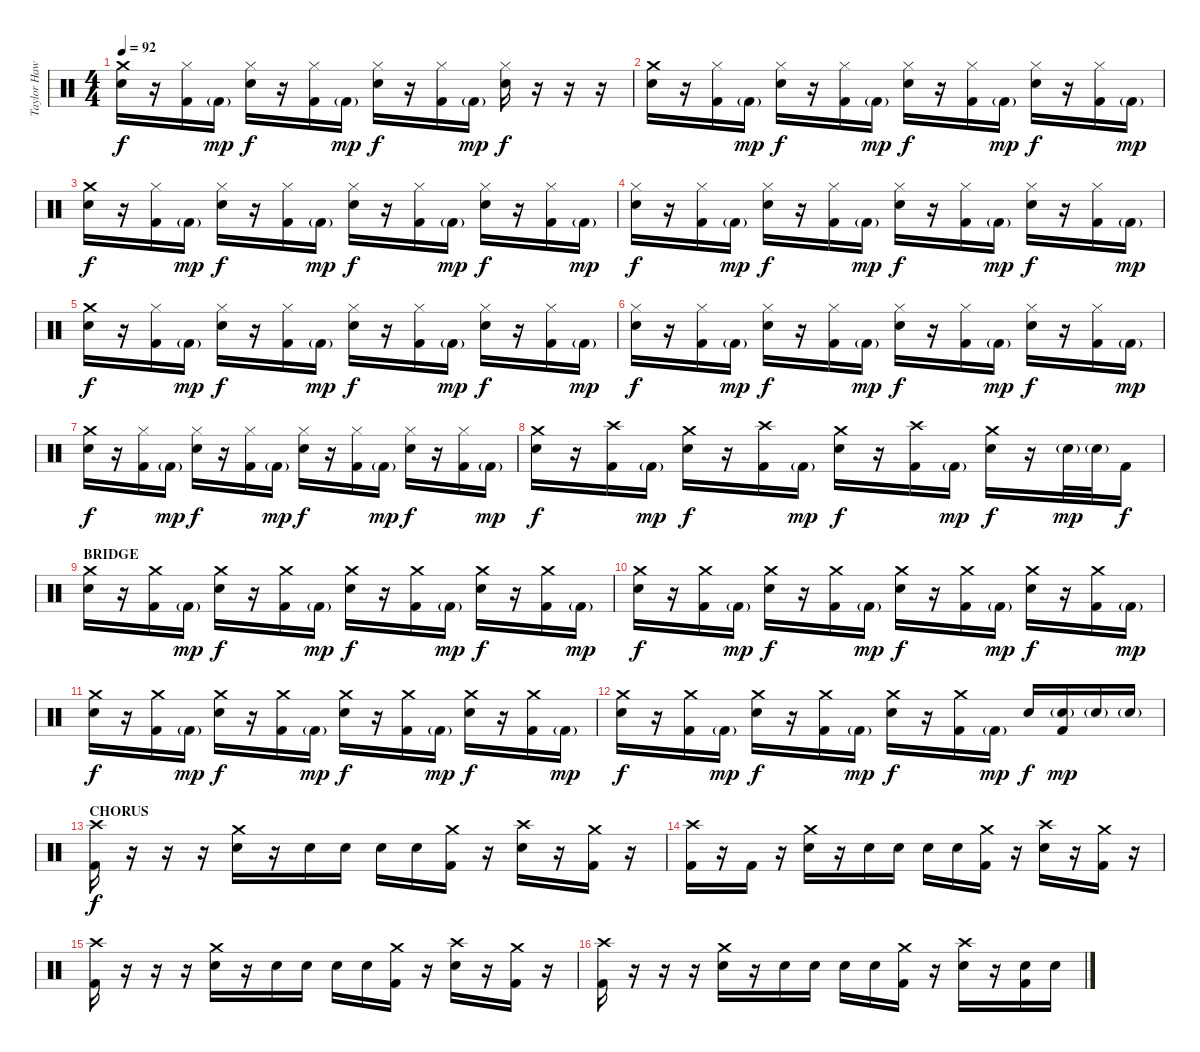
\track ("Taylor Hawkins (Drums)" "Taylor Haw") {instrument percussion}
\staff {score}
\articulation defaults
\ts (4 4)
\tempo 92
\clef neutral
\ks c
("Crash medium (hit)" "Electric Snare (hit)").16{dy f} r.16 ("Hi-Hat (closed)" "Kick (hit) 2").16 "Kick (hit) 2"{g}.16{dy mp} ("Hi-Hat (closed)" "Electric Snare (hit)").16{dy f} r.16 ("Hi-Hat (closed)" "Kick (hit) 2").16 "Kick (hit) 2"{g}.16{dy mp} ("Hi-Hat (closed)" "Electric Snare (hit)").16{dy f} r.16 ("Hi-Hat (closed)" "Kick (hit) 2").16 "Kick (hit) 2"{g}.16{dy mp} ("Hi-Hat (closed)" "Electric Snare (hit)").16{dy f} r.16 r.16 r.16 |
("Crash medium (hit)" "Electric Snare (hit)").16 r.16 ("Hi-Hat (closed)" "Kick (hit) 2").16 "Kick (hit) 2"{g}.16{dy mp} ("Hi-Hat (closed)" "Electric Snare (hit)").16{dy f} r.16 ("Hi-Hat (closed)" "Kick (hit) 2").16 "Kick (hit) 2"{g}.16{dy mp} ("Hi-Hat (closed)" "Electric Snare (hit)").16{dy f} r.16 ("Hi-Hat (closed)" "Kick (hit) 2").16 "Kick (hit) 2"{g}.16{dy mp} ("Hi-Hat (closed)" "Electric Snare (hit)").16{dy f} r.16 ("Hi-Hat (closed)" "Kick (hit) 2").16 "Kick (hit) 2"{g}.16{dy mp} |
("Crash medium (hit)" "Electric Snare (hit)").16{dy f} r.16 ("Hi-Hat (closed)" "Kick (hit) 2").16 "Kick (hit) 2"{g}.16{dy mp} ("Hi-Hat (closed)" "Electric Snare (hit)").16{dy f} r.16 ("Hi-Hat (closed)" "Kick (hit) 2").16 "Kick (hit) 2"{g}.16{dy mp} ("Hi-Hat (closed)" "Electric Snare (hit)").16{dy f} r.16 ("Hi-Hat (closed)" "Kick (hit) 2").16 "Kick (hit) 2"{g}.16{dy mp} ("Hi-Hat (closed)" "Electric Snare (hit)").16{dy f} r.16 ("Hi-Hat (closed)" "Kick (hit) 2").16 "Kick (hit) 2"{g}.16{dy mp} |
("Hi-Hat (closed)" "Electric Snare (hit)").16{dy f} r.16 ("Hi-Hat (closed)" "Kick (hit) 2").16 "Kick (hit) 2"{g}.16{dy mp} ("Hi-Hat (closed)" "Electric Snare (hit)").16{dy f} r.16 ("Hi-Hat (closed)" "Kick (hit) 2").16 "Kick (hit) 2"{g}.16{dy mp} ("Hi-Hat (closed)" "Electric Snare (hit)").16{dy f} r.16 ("Hi-Hat (closed)" "Kick (hit) 2").16 "Kick (hit) 2"{g}.16{dy mp} ("Hi-Hat (closed)" "Electric Snare (hit)").16{dy f} r.16 ("Hi-Hat (closed)" "Kick (hit) 2").16 "Kick (hit) 2"{g}.16{dy mp} |
("Crash medium (hit)" "Electric Snare (hit)").16{dy f} r.16 ("Hi-Hat (closed)" "Kick (hit) 2").16 "Kick (hit) 2"{g}.16{dy mp} ("Hi-Hat (closed)" "Electric Snare (hit)").16{dy f} r.16 ("Hi-Hat (closed)" "Kick (hit) 2").16 "Kick (hit) 2"{g}.16{dy mp} ("Hi-Hat (closed)" "Electric Snare (hit)").16{dy f} r.16 ("Hi-Hat (closed)" "Kick (hit) 2").16 "Kick (hit) 2"{g}.16{dy mp} ("Hi-Hat (closed)" "Electric Snare (hit)").16{dy f} r.16 ("Hi-Hat (closed)" "Kick (hit) 2").16 "Kick (hit) 2"{g}.16{dy mp} |
("Hi-Hat (closed)" "Electric Snare (hit)").16{dy f} r.16 ("Hi-Hat (closed)" "Kick (hit) 2").16 "Kick (hit) 2"{g}.16{dy mp} ("Hi-Hat (closed)" "Electric Snare (hit)").16{dy f} r.16 ("Hi-Hat (closed)" "Kick (hit) 2").16 "Kick (hit) 2"{g}.16{dy mp} ("Hi-Hat (closed)" "Electric Snare (hit)").16{dy f} r.16 ("Hi-Hat (closed)" "Kick (hit) 2").16 "Kick (hit) 2"{g}.16{dy mp} ("Hi-Hat (closed)" "Electric Snare (hit)").16{dy f} r.16 ("Hi-Hat (closed)" "Kick (hit) 2").16 "Kick (hit) 2"{g}.16{dy mp} |
("Crash medium (hit)" "Electric Snare (hit)").16{dy f} r.16 ("Hi-Hat (closed)" "Kick (hit) 2").16 "Kick (hit) 2"{g}.16{dy mp} ("Hi-Hat (closed)" "Electric Snare (hit)").16{dy f} r.16 ("Hi-Hat (closed)" "Kick (hit) 2").16 "Kick (hit) 2"{g}.16{dy mp} ("Hi-Hat (closed)" "Electric Snare (hit)").16{dy f} r.16 ("Hi-Hat (closed)" "Kick (hit) 2").16 "Kick (hit) 2"{g}.16{dy mp} ("Hi-Hat (closed)" "Electric Snare (hit)").16{dy f} r.16 ("Hi-Hat (closed)" "Kick (hit) 2").16 "Kick (hit) 2"{g}.16{dy mp} |
("Crash medium (hit)" "Electric Snare (hit)").16{dy f} r.16 ("Crash high (hit)" "Kick (hit) 2").16 "Kick (hit) 2"{g}.16{dy mp} ("Crash medium (hit)" "Electric Snare (hit)").16{dy f} r.16 ("Crash high (hit)" "Kick (hit) 2").16 "Kick (hit) 2"{g}.16{dy mp} ("Crash medium (hit)" "Electric Snare (hit)").16{dy f} r.16 ("Crash high (hit)" "Kick (hit) 2").16 "Kick (hit) 2"{g}.16{dy mp} ("Crash medium (hit)" "Electric Snare (hit)").16{dy f} r.16 "Electric Snare (hit)"{g}.32{dy mp} "Electric Snare (hit)"{g}.32 "Kick (hit) 2".16{dy f} |
\section ("" "BRIDGE")
("Crash medium (hit)" "Electric Snare (hit)").16 r.16 ("Crash medium (hit)" "Kick (hit) 2").16 "Kick (hit) 2"{g}.16{dy mp} ("Crash medium (hit)" "Electric Snare (hit)").16{dy f} r.16 ("Crash medium (hit)" "Kick (hit) 2").16 "Kick (hit) 2"{g}.16{dy mp} ("Crash medium (hit)" "Electric Snare (hit)").16{dy f} r.16 ("Crash medium (hit)" "Kick (hit) 2").16 "Kick (hit) 2"{g}.16{dy mp} ("Crash medium (hit)" "Electric Snare (hit)").16{dy f} r.16 ("Crash medium (hit)" "Kick (hit) 2").16 "Kick (hit) 2"{g}.16{dy mp} |
("Crash medium (hit)" "Electric Snare (hit)").16{dy f} r.16 ("Crash medium (hit)" "Kick (hit) 2").16 "Kick (hit) 2"{g}.16{dy mp} ("Crash medium (hit)" "Electric Snare (hit)").16{dy f} r.16 ("Crash medium (hit)" "Kick (hit) 2").16 "Kick (hit) 2"{g}.16{dy mp} ("Crash medium (hit)" "Electric Snare (hit)").16{dy f} r.16 ("Crash medium (hit)" "Kick (hit) 2").16 "Kick (hit) 2"{g}.16{dy mp} ("Crash medium (hit)" "Electric Snare (hit)").16{dy f} r.16 ("Crash medium (hit)" "Kick (hit) 2").16 "Kick (hit) 2"{g}.16{dy mp} |
("Crash medium (hit)" "Electric Snare (hit)").16{dy f} r.16 ("Crash medium (hit)" "Kick (hit) 2").16 "Kick (hit) 2"{g}.16{dy mp} ("Crash medium (hit)" "Electric Snare (hit)").16{dy f} r.16 ("Crash medium (hit)" "Kick (hit) 2").16 "Kick (hit) 2"{g}.16{dy mp} ("Crash medium (hit)" "Electric Snare (hit)").16{dy f} r.16 ("Crash medium (hit)" "Kick (hit) 2").16 "Kick (hit) 2"{g}.16{dy mp} ("Crash medium (hit)" "Electric Snare (hit)").16{dy f} r.16 ("Crash medium (hit)" "Kick (hit) 2").16 "Kick (hit) 2"{g}.16{dy mp} |
("Crash medium (hit)" "Electric Snare (hit)").16{dy f} r.16 ("Crash medium (hit)" "Kick (hit) 2").16 "Kick (hit) 2"{g}.16{dy mp} ("Crash medium (hit)" "Electric Snare (hit)").16{dy f} r.16 ("Crash medium (hit)" "Kick (hit) 2").16 "Kick (hit) 2"{g}.16{dy mp} ("Crash medium (hit)" "Electric Snare (hit)").16{dy f} r.16 ("Crash medium (hit)" "Kick (hit) 2").16 "Kick (hit) 2"{g}.16{dy mp} "Electric Snare (hit)".16{dy f} ("Electric Snare (hit)"{g} "Kick (hit) 2").16{dy mp} "Electric Snare (hit)"{g}.16 "Electric Snare (hit)"{g}.16 |
\section ("" "CHORUS")
("Crash high (hit)" "Kick (hit) 2").16{dy f} r.16 r.16 r.16 ("Crash medium (hit)" "Electric Snare (hit)").16 r.16 "Electric Snare (hit)".16 "Electric Snare (hit)".16 "Electric Snare (hit)".16 "Electric Snare (hit)".16 ("Crash medium (hit)" "Kick (hit) 2").16 r.16 ("Crash high (hit)" "Electric Snare (hit)").16 r.16 ("Crash medium (hit)" "Kick (hit) 2").16 r.16 |
("Crash high (hit)" "Kick (hit) 2").16 r.16 "Kick (hit) 2".16 r.16 ("Crash medium (hit)" "Electric Snare (hit)").16 r.16 "Electric Snare (hit)".16 "Electric Snare (hit)".16 "Electric Snare (hit)".16 "Electric Snare (hit)".16 ("Crash medium (hit)" "Kick (hit) 2").16 r.16 ("Crash high (hit)" "Electric Snare (hit)").16 r.16 ("Crash medium (hit)" "Kick (hit) 2").16 r.16 |
("Crash high (hit)" "Kick (hit) 2").16 r.16 r.16 r.16 ("Crash medium (hit)" "Electric Snare (hit)").16 r.16 "Electric Snare (hit)".16 "Electric Snare (hit)".16 "Electric Snare (hit)".16 "Electric Snare (hit)".16 ("Crash medium (hit)" "Kick (hit) 2").16 r.16 ("Crash high (hit)" "Electric Snare (hit)").16 r.16 ("Crash medium (hit)" "Kick (hit) 2").16 r.16 |
("Crash high (hit)" "Kick (hit) 2").16 r.16 r.16 r.16 ("Crash medium (hit)" "Electric Snare (hit)").16 r.16 "Electric Snare (hit)".16 "Electric Snare (hit)".16 "Electric Snare (hit)".16 "Electric Snare (hit)".16 ("Crash medium (hit)" "Kick (hit) 2").16 r.16 ("Crash high (hit)" "Electric Snare (hit)").16 r.16 ("Electric Snare (hit)" "Kick (hit) 2").16 "Electric Snare (hit)".16
